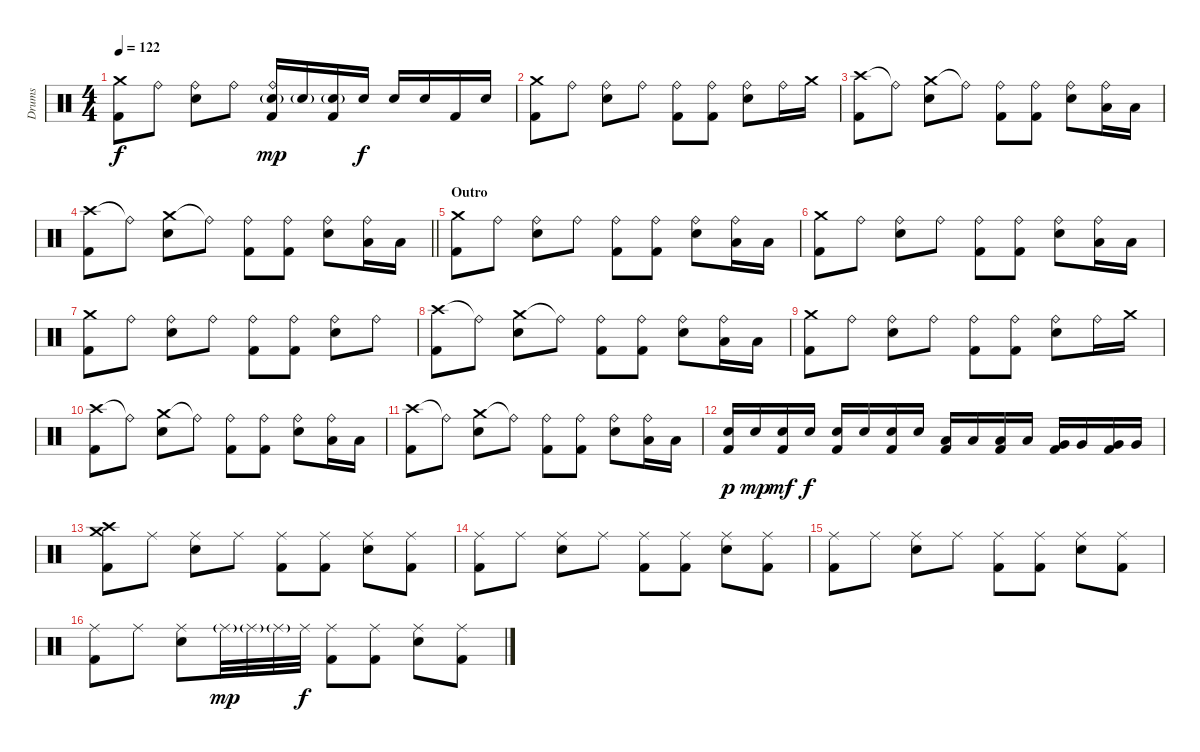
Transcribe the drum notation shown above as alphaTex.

\track ("Drums" "Drums") {instrument percussion}
\staff {score}
\articulation defaults
\ts (4 4)
\tempo 122
\clef neutral
\ks c
("Crash medium (hit)" "Kick (hit) 2").8{dy f} "Ride (bell)".8 ("Ride (bell)" "Snare (hit) 2").8 "Ride (bell)".8 ("Ride (bell)" "Snare (hit) 2"{g} "Kick (hit) 2").16{dy mp} "Snare (hit) 2"{g}.16 ("Snare (hit) 2"{g} "Kick (hit) 2").16 "Snare (hit) 2".16{dy f} "Snare (hit) 2".16 "Snare (hit) 2".16 "Kick (hit) 2".16 "Snare (hit) 2".16 |
("Crash medium (hit)" "Kick (hit) 2").8 "Ride (bell)".8 ("Ride (bell)" "Snare (hit) 2").8 "Ride (bell)".8 ("Ride (bell)" "Kick (hit) 2").8 ("Ride (bell)" "Kick (hit) 2").8 ("Ride (bell)" "Snare (hit) 2").8 "Ride (bell)".16 "Crash medium (hit)".16 |
("Crash high (hit)" "Kick (hit) 2").8 "Ride (bell)"{t}.8 ("Crash medium (hit)" "Snare (hit) 2").8 "Ride (bell)"{t}.8 ("Ride (bell)" "Kick (hit) 2").8 ("Ride (bell)" "Kick (hit) 2").8 ("Ride (bell)" "Snare (hit) 2").8 ("Ride (bell)" "Low Tom (hit)").16 "Low Tom (hit)".16 |
\barLineRight lightlight
("Crash high (hit)" "Kick (hit) 2").8 "Ride (bell)"{t}.8 ("Crash medium (hit)" "Snare (hit) 2").8 "Ride (bell)"{t}.8 ("Ride (bell)" "Kick (hit) 2").8 ("Ride (bell)" "Kick (hit) 2").8 ("Ride (bell)" "Snare (hit) 2").8 ("Ride (bell)" "Low Tom (hit)").16 "Low Tom (hit)".16 |
\section ("" "Outro")
("Crash medium (hit)" "Kick (hit) 2").8 "Ride (bell)".8 ("Ride (bell)" "Snare (hit) 2").8 "Ride (bell)".8 ("Ride (bell)" "Kick (hit) 2").8 ("Ride (bell)" "Kick (hit) 2").8 ("Ride (bell)" "Snare (hit) 2").8 ("Ride (bell)" "Low Tom (hit)").16 "Low Tom (hit)".16 |
("Crash medium (hit)" "Kick (hit) 2").8 "Ride (bell)".8 ("Ride (bell)" "Snare (hit) 2").8 "Ride (bell)".8 ("Ride (bell)" "Kick (hit) 2").8 ("Ride (bell)" "Kick (hit) 2").8 ("Ride (bell)" "Snare (hit) 2").8 ("Ride (bell)" "Low Tom (hit)").16 "Low Tom (hit)".16 |
("Crash medium (hit)" "Kick (hit) 2").8 "Ride (bell)".8 ("Ride (bell)" "Snare (hit) 2").8 "Ride (bell)".8 ("Ride (bell)" "Kick (hit) 2").8 ("Ride (bell)" "Kick (hit) 2").8 ("Ride (bell)" "Snare (hit) 2").8 "Ride (bell)".8 |
("Crash high (hit)" "Kick (hit) 2").8 "Ride (bell)"{t}.8 ("Crash medium (hit)" "Snare (hit) 2").8 "Ride (bell)"{t}.8 ("Ride (bell)" "Kick (hit) 2").8 ("Ride (bell)" "Kick (hit) 2").8 ("Ride (bell)" "Snare (hit) 2").8 ("Ride (bell)" "Low Tom (hit)").16 "Low Tom (hit)".16 |
("Crash medium (hit)" "Kick (hit) 2").8 "Ride (bell)".8 ("Ride (bell)" "Snare (hit) 2").8 "Ride (bell)".8 ("Ride (bell)" "Kick (hit) 2").8 ("Ride (bell)" "Kick (hit) 2").8 ("Ride (bell)" "Snare (hit) 2").8 "Ride (bell)".16 "Crash medium (hit)".16 |
("Crash high (hit)" "Kick (hit) 2").8 "Ride (bell)"{t}.8 ("Crash medium (hit)" "Snare (hit) 2").8 "Ride (bell)"{t}.8 ("Ride (bell)" "Kick (hit) 2").8 ("Ride (bell)" "Kick (hit) 2").8 ("Ride (bell)" "Snare (hit) 2").8 ("Ride (bell)" "Low Tom (hit)").16 "Low Tom (hit)".16 |
("Crash high (hit)" "Kick (hit) 2").8 "Ride (bell)"{t}.8 ("Crash medium (hit)" "Snare (hit) 2").8 "Ride (bell)"{t}.8 ("Ride (bell)" "Kick (hit) 2").8 ("Ride (bell)" "Kick (hit) 2").8 ("Ride (bell)" "Snare (hit) 2").8 ("Ride (bell)" "Low Tom (hit)").16 "Low Tom (hit)".16 |
("Snare (hit) 2" "Kick (hit) 2").16{dy p} "Snare (hit) 2".16{dy mp} ("Snare (hit) 2" "Kick (hit) 2").16{dy mf} "Snare (hit) 2".16{dy f} ("Snare (hit) 2" "Kick (hit) 2").16 "Snare (hit) 2".16 ("Snare (hit) 2" "Kick (hit) 2").16 "Snare (hit) 2".16 ("Low Tom (hit)" "Kick (hit) 2").16 "Low Tom (hit)".16 ("Low Tom (hit)" "Kick (hit) 2").16 "Low Tom (hit)".16 ("Very Low Tom (hit)" "Kick (hit) 2").16 "Very Low Tom (hit)".16 ("Very Low Tom (hit)" "Kick (hit) 2").16 "Very Low Tom (hit)".16 |
("Crash medium (hit)" "Crash high (hit)" "Kick (hit) 2").8 "Ride (middle)".8 ("Ride (middle)" "Snare (hit) 2").8 "Ride (middle)".8 ("Ride (middle)" "Kick (hit) 2").8 ("Ride (middle)" "Kick (hit) 2").8 ("Ride (middle)" "Snare (hit) 2").8 ("Ride (middle)" "Kick (hit) 2").8 |
("Ride (middle)" "Kick (hit) 2").8 "Ride (middle)".8 ("Ride (middle)" "Snare (hit) 2").8 "Ride (middle)".8 ("Ride (middle)" "Kick (hit) 2").8 ("Ride (middle)" "Kick (hit) 2").8 ("Ride (middle)" "Snare (hit) 2").8 ("Ride (middle)" "Kick (hit) 2").8 |
("Ride (middle)" "Kick (hit) 2").8 "Ride (middle)".8 ("Ride (middle)" "Snare (hit) 2").8 "Ride (middle)".8 ("Ride (middle)" "Kick (hit) 2").8 ("Ride (middle)" "Kick (hit) 2").8 ("Ride (middle)" "Snare (hit) 2").8 ("Ride (middle)" "Kick (hit) 2").8 |
("Ride (middle)" "Kick (hit) 2").8 "Ride (middle)".8 ("Ride (middle)" "Snare (hit) 2").8 "Ride (middle)"{g}.32{dy mp} "Ride (middle)"{g}.32 "Ride (middle)"{g}.32 "Ride (middle)".32{dy f} ("Ride (middle)" "Kick (hit) 2").8 ("Ride (middle)" "Kick (hit) 2").8 ("Ride (middle)" "Snare (hit) 2").8 ("Ride (middle)" "Kick (hit) 2").8
